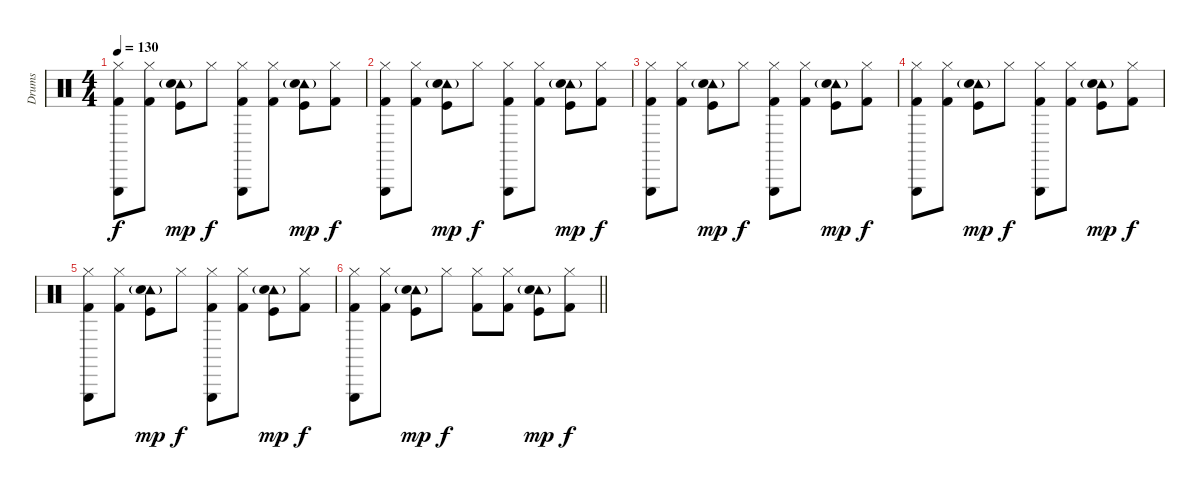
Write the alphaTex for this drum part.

\track ("Drums" "Drums") {instrument percussion}
\staff {score}
\articulation defaults
\ts (4 4)
\tempo 130
\clef neutral
\ks c
("Hi-Hat (closed)" "Triangle (hit)" "Kick (hit) 2").8{dy f} ("Hi-Hat (closed)" "Kick (hit) 2").8 ("Tambourine (hit)" "Snare (hit) 2"{g} "Kick (hit)").8{dy mp} "Hi-Hat (closed)".8{dy f} ("Hi-Hat (closed)" "Triangle (hit)" "Kick (hit) 2").8 ("Hi-Hat (closed)" "Kick (hit) 2").8 ("Tambourine (hit)" "Snare (hit) 2"{g} "Kick (hit)").8{dy mp} ("Hi-Hat (closed)" "Kick (hit) 2").8{dy f} |
("Hi-Hat (closed)" "Triangle (hit)" "Kick (hit) 2").8 ("Hi-Hat (closed)" "Kick (hit) 2").8 ("Tambourine (hit)" "Snare (hit) 2"{g} "Kick (hit)").8{dy mp} "Hi-Hat (closed)".8{dy f} ("Hi-Hat (closed)" "Triangle (hit)" "Kick (hit) 2").8 ("Hi-Hat (closed)" "Kick (hit) 2").8 ("Tambourine (hit)" "Snare (hit) 2"{g} "Kick (hit)").8{dy mp} ("Hi-Hat (closed)" "Kick (hit) 2").8{dy f} |
("Hi-Hat (closed)" "Triangle (hit)" "Kick (hit) 2").8 ("Hi-Hat (closed)" "Kick (hit) 2").8 ("Tambourine (hit)" "Snare (hit) 2"{g} "Kick (hit)").8{dy mp} "Hi-Hat (closed)".8{dy f} ("Hi-Hat (closed)" "Triangle (hit)" "Kick (hit) 2").8 ("Hi-Hat (closed)" "Kick (hit) 2").8 ("Tambourine (hit)" "Snare (hit) 2"{g} "Kick (hit)").8{dy mp} ("Hi-Hat (closed)" "Kick (hit) 2").8{dy f} |
("Hi-Hat (closed)" "Triangle (hit)" "Kick (hit) 2").8 ("Hi-Hat (closed)" "Kick (hit) 2").8 ("Tambourine (hit)" "Snare (hit) 2"{g} "Kick (hit)").8{dy mp} "Hi-Hat (closed)".8{dy f} ("Hi-Hat (closed)" "Triangle (hit)" "Kick (hit) 2").8 ("Hi-Hat (closed)" "Kick (hit) 2").8 ("Tambourine (hit)" "Snare (hit) 2"{g} "Kick (hit)").8{dy mp} ("Hi-Hat (closed)" "Kick (hit) 2").8{dy f} |
("Hi-Hat (closed)" "Triangle (hit)" "Kick (hit) 2").8 ("Hi-Hat (closed)" "Kick (hit) 2").8 ("Tambourine (hit)" "Snare (hit) 2"{g} "Kick (hit)").8{dy mp} "Hi-Hat (closed)".8{dy f} ("Hi-Hat (closed)" "Triangle (hit)" "Kick (hit) 2").8 ("Hi-Hat (closed)" "Kick (hit) 2").8 ("Tambourine (hit)" "Snare (hit) 2"{g} "Kick (hit)").8{dy mp} ("Hi-Hat (closed)" "Kick (hit) 2").8{dy f} |
\barLineRight lightlight
("Hi-Hat (closed)" "Triangle (hit)" "Kick (hit) 2").8 ("Hi-Hat (closed)" "Kick (hit) 2").8 ("Tambourine (hit)" "Snare (hit) 2"{g} "Kick (hit)").8{dy mp} "Hi-Hat (closed)".8{dy f} ("Hi-Hat (closed)" "Kick (hit) 2").8 ("Hi-Hat (closed)" "Kick (hit) 2").8 ("Tambourine (hit)" "Snare (hit) 2"{g} "Kick (hit)").8{dy mp} ("Hi-Hat (closed)" "Kick (hit) 2").8{dy f}
